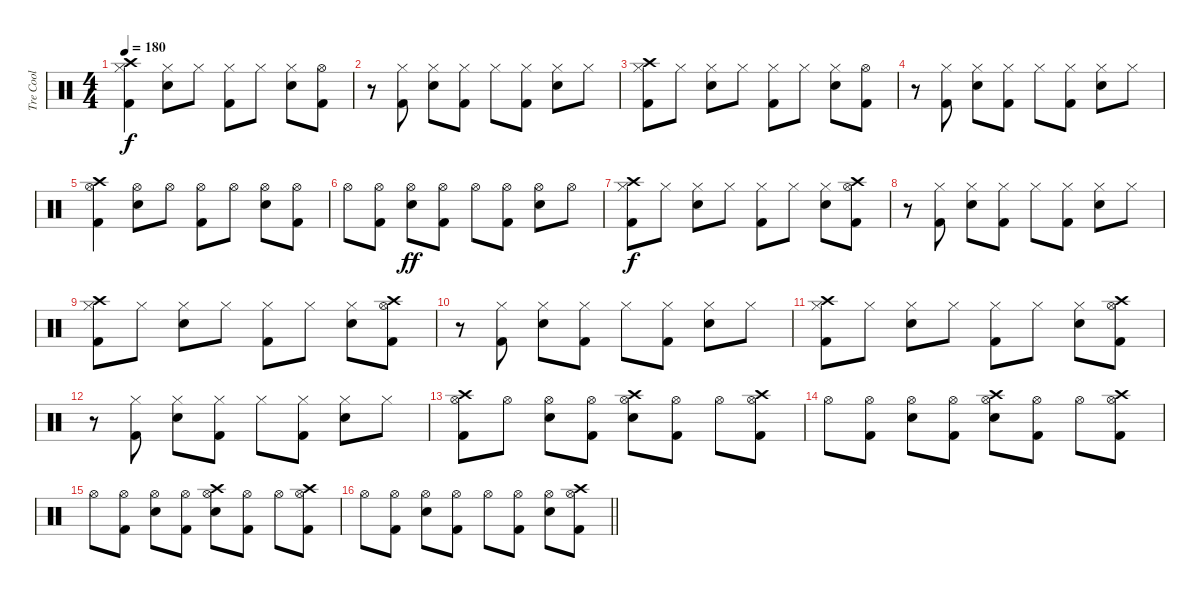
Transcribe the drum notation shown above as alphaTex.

\track ("Tre Cool" "Tre Cool") {instrument percussion}
\staff {score}
\articulation defaults
\ts (4 4)
\tempo 180
\clef neutral
\ks c
("Crash high (hit)" "Hi-Hat (closed)" "Kick (hit) 2").4{dy f} ("Hi-Hat (closed)" "Electric Snare (hit)").8 "Hi-Hat (closed)".8 ("Hi-Hat (closed)" "Kick (hit) 2").8 "Hi-Hat (closed)".8 ("Hi-Hat (closed)" "Electric Snare (hit)").8 ("Hi-Hat (open)" "Kick (hit) 2").8 |
r.8 ("Hi-Hat (closed)" "Kick (hit) 2").8 ("Hi-Hat (closed)" "Electric Snare (hit)").8 ("Hi-Hat (closed)" "Kick (hit) 2").8 "Hi-Hat (closed)".8 ("Hi-Hat (closed)" "Kick (hit) 2").8 ("Hi-Hat (closed)" "Electric Snare (hit)").8 "Hi-Hat (closed)".8 |
("Crash high (hit)" "Hi-Hat (closed)" "Kick (hit) 2").8 "Hi-Hat (closed)".8 ("Hi-Hat (closed)" "Electric Snare (hit)").8 "Hi-Hat (closed)".8 ("Hi-Hat (closed)" "Kick (hit) 2").8 "Hi-Hat (closed)".8 ("Hi-Hat (closed)" "Electric Snare (hit)").8 ("Hi-Hat (open)" "Kick (hit) 2").8 |
r.8 ("Hi-Hat (closed)" "Kick (hit) 2").8 ("Hi-Hat (closed)" "Electric Snare (hit)").8 ("Hi-Hat (closed)" "Kick (hit) 2").8 "Hi-Hat (closed)".8 ("Hi-Hat (closed)" "Kick (hit) 2").8 ("Hi-Hat (closed)" "Electric Snare (hit)").8 "Hi-Hat (closed)".8 |
("Crash high (hit)" "Hi-Hat (open)" "Kick (hit) 2").4 ("Hi-Hat (open)" "Electric Snare (hit)").8 "Hi-Hat (open)".8 ("Hi-Hat (open)" "Kick (hit) 2").8 "Hi-Hat (open)".8 ("Hi-Hat (open)" "Electric Snare (hit)").8 ("Hi-Hat (open)" "Kick (hit) 2").8 |
"Hi-Hat (open)".8 ("Hi-Hat (open)" "Kick (hit) 2").8 ("Hi-Hat (open)" "Electric Snare (hit)").8{dy ff} ("Hi-Hat (open)" "Kick (hit) 2").8 "Hi-Hat (open)".8 ("Hi-Hat (open)" "Kick (hit) 2").8 ("Hi-Hat (open)" "Electric Snare (hit)").8 "Hi-Hat (open)".8 |
("Crash high (hit)" "Hi-Hat (closed)" "Kick (hit) 2").8{dy f} "Hi-Hat (closed)".8 ("Hi-Hat (closed)" "Electric Snare (hit)").8 "Hi-Hat (closed)".8 ("Hi-Hat (closed)" "Kick (hit) 2").8 "Hi-Hat (closed)".8 ("Hi-Hat (closed)" "Electric Snare (hit)").8 ("Crash high (hit)" "Hi-Hat (open)" "Kick (hit) 2").8 |
r.8 ("Hi-Hat (closed)" "Kick (hit) 2").8 ("Hi-Hat (closed)" "Electric Snare (hit)").8 ("Hi-Hat (closed)" "Kick (hit) 2").8 "Hi-Hat (closed)".8 ("Hi-Hat (closed)" "Kick (hit) 2").8 ("Hi-Hat (closed)" "Electric Snare (hit)").8 "Hi-Hat (closed)".8 |
("Crash high (hit)" "Hi-Hat (closed)" "Kick (hit) 2").8 "Hi-Hat (closed)".8 ("Hi-Hat (closed)" "Electric Snare (hit)").8 "Hi-Hat (closed)".8 ("Hi-Hat (closed)" "Kick (hit) 2").8 "Hi-Hat (closed)".8 ("Hi-Hat (closed)" "Electric Snare (hit)").8 ("Crash high (hit)" "Hi-Hat (open)" "Kick (hit) 2").8 |
r.8 ("Hi-Hat (closed)" "Kick (hit) 2").8 ("Hi-Hat (closed)" "Electric Snare (hit)").8 ("Hi-Hat (closed)" "Kick (hit) 2").8 "Hi-Hat (closed)".8 ("Hi-Hat (closed)" "Kick (hit) 2").8 ("Hi-Hat (closed)" "Electric Snare (hit)").8 "Hi-Hat (closed)".8 |
("Crash high (hit)" "Hi-Hat (closed)" "Kick (hit) 2").8 "Hi-Hat (closed)".8 ("Hi-Hat (closed)" "Electric Snare (hit)").8 "Hi-Hat (closed)".8 ("Hi-Hat (closed)" "Kick (hit) 2").8 "Hi-Hat (closed)".8 ("Hi-Hat (closed)" "Electric Snare (hit)").8 ("Crash high (hit)" "Hi-Hat (open)" "Kick (hit) 2").8 |
r.8 ("Hi-Hat (closed)" "Kick (hit) 2").8 ("Hi-Hat (closed)" "Electric Snare (hit)").8 ("Hi-Hat (closed)" "Kick (hit) 2").8 "Hi-Hat (closed)".8 ("Hi-Hat (closed)" "Kick (hit) 2").8 ("Hi-Hat (closed)" "Electric Snare (hit)").8 "Hi-Hat (closed)".8 |
("Crash high (hit)" "Hi-Hat (open)" "Kick (hit) 2").8 "Hi-Hat (open)".8 ("Hi-Hat (open)" "Electric Snare (hit)").8 ("Hi-Hat (open)" "Kick (hit) 2").8 ("Crash high (hit)" "Hi-Hat (open)" "Electric Snare (hit)").8 ("Hi-Hat (open)" "Kick (hit) 2").8 "Hi-Hat (open)".8 ("Crash high (hit)" "Hi-Hat (open)" "Kick (hit) 2").8 |
"Hi-Hat (open)".8 ("Hi-Hat (open)" "Kick (hit) 2").8 ("Hi-Hat (open)" "Electric Snare (hit)").8 ("Hi-Hat (open)" "Kick (hit) 2").8 ("Crash high (hit)" "Hi-Hat (open)" "Electric Snare (hit)").8 ("Hi-Hat (open)" "Kick (hit) 2").8 "Hi-Hat (open)".8 ("Crash high (hit)" "Hi-Hat (open)" "Kick (hit) 2").8 |
"Hi-Hat (open)".8 ("Hi-Hat (open)" "Kick (hit) 2").8 ("Hi-Hat (open)" "Electric Snare (hit)").8 ("Hi-Hat (open)" "Kick (hit) 2").8 ("Crash high (hit)" "Hi-Hat (open)" "Electric Snare (hit)").8 ("Hi-Hat (open)" "Kick (hit) 2").8 "Hi-Hat (open)".8 ("Crash high (hit)" "Hi-Hat (open)" "Kick (hit) 2").8 |
\barLineRight lightlight "Hi-Hat (open)".8
("Hi-Hat (open)" "Kick (hit) 2").8 ("Hi-Hat (open)" "Electric Snare (hit)").8 ("Hi-Hat (open)" "Kick (hit) 2").8 "Hi-Hat (open)".8 ("Hi-Hat (open)" "Kick (hit) 2").8 ("Hi-Hat (open)" "Electric Snare (hit)").8 ("Crash high (hit)" "Hi-Hat (open)" "Kick (hit) 2").8
